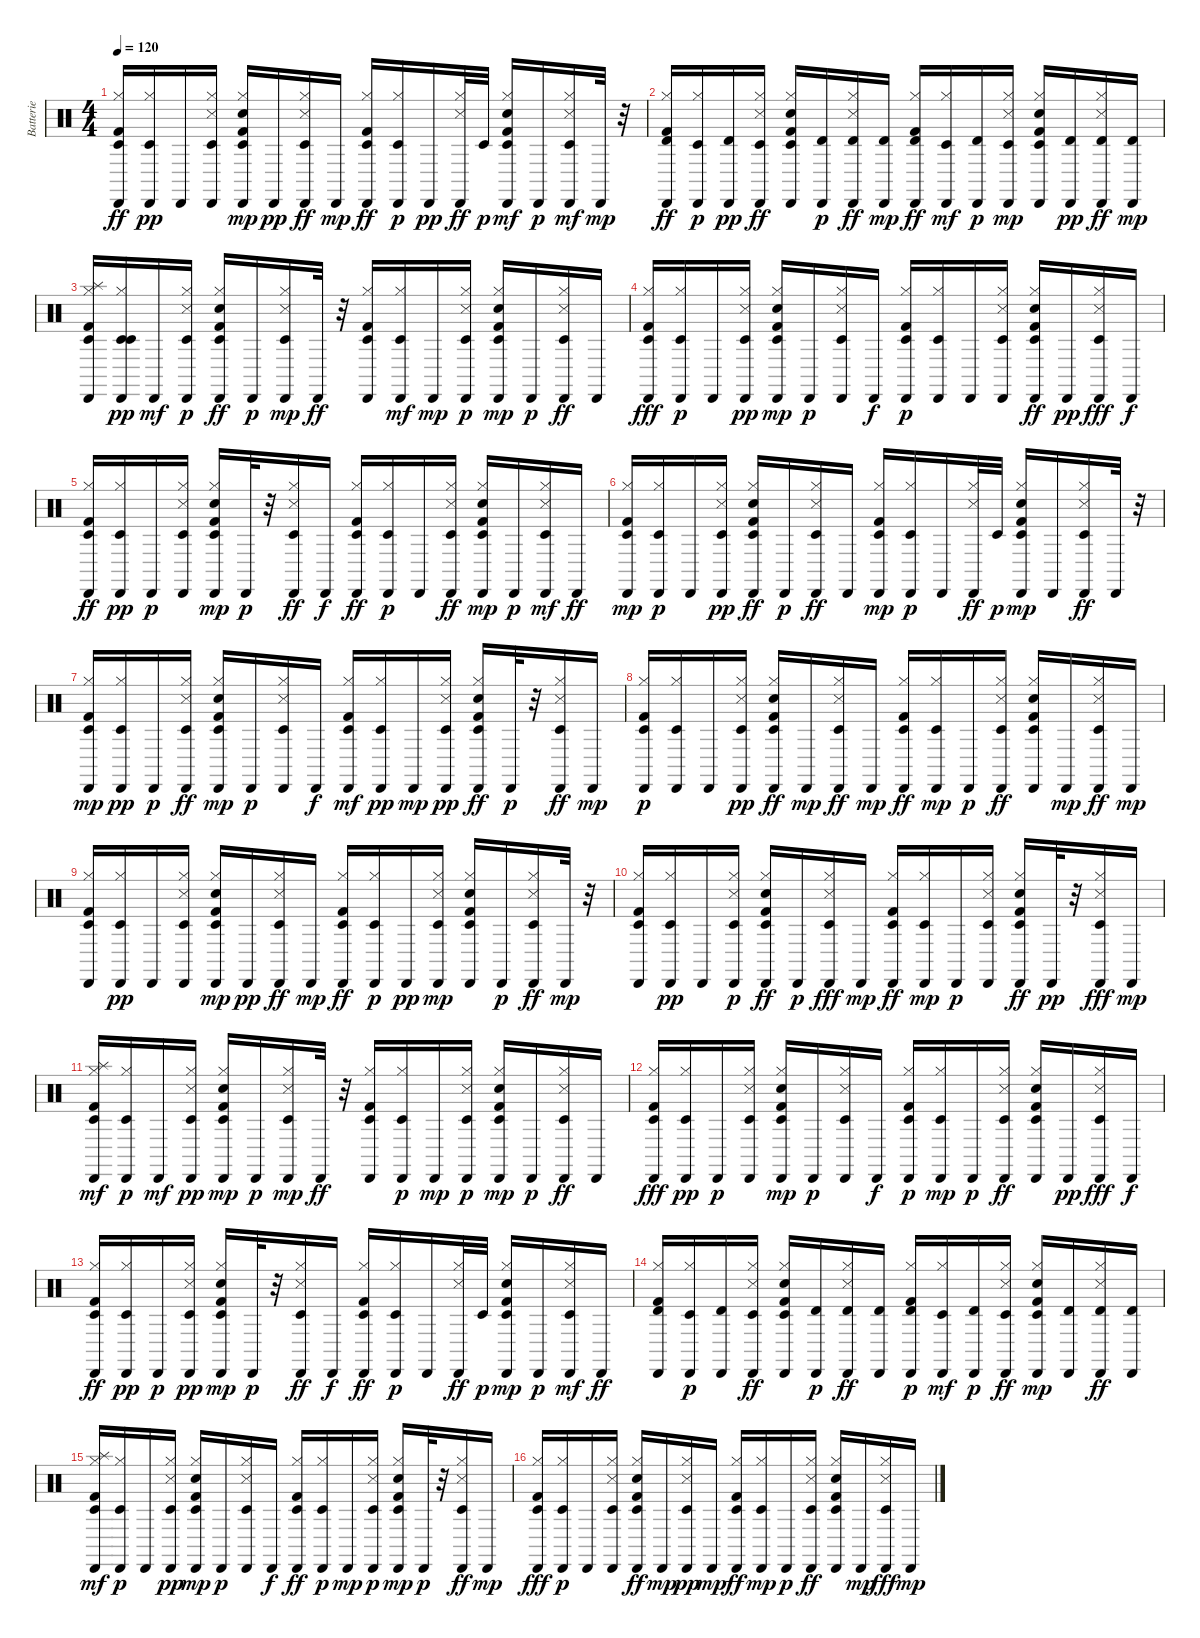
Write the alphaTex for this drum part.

\track ("Batterie" "Batterie") {instrument percussion}
\staff {score}
\articulation defaults
\ts (4 4)
\tempo 120
\clef neutral
\ks c
("Kick (hit) 2" "Cabasa (hit)" "Timbale low (hit)" "Hi-Hat (closed)").16{dy ff} ("Hi-Hat (closed)" "Timbale low (hit)" "Cabasa (hit)").16{dy pp} "Cabasa (hit)".16 ("Snare (side stick) 3" "Cabasa (hit)" "Hi-Hat (closed)" "Timbale low (hit)").16 ("Kick (hit) 2" "Hi-Hat (closed)" "Timbale low (hit)" "Cabasa (hit)" "Hand Clap (hit)").16{dy mp} "Cabasa (hit)".16{dy pp} ("Snare (side stick) 3" "Cabasa (hit)" "Timbale low (hit)" "Hi-Hat (closed)").16{dy ff} "Cabasa (hit)".16{dy mp} ("Cabasa (hit)" "Kick (hit) 2" "Timbale low (hit)" "Hi-Hat (closed)").16{dy ff} ("Hi-Hat (closed)" "Cabasa (hit)" "Timbale low (hit)").16{dy p} "Cabasa (hit)".16{dy pp} ("Cabasa (hit)" "Snare (side stick) 3" "Hi-Hat (closed)").32{dy ff} "Timbale low (hit)".32{dy p} ("Hi-Hat (closed)" "Cabasa (hit)" "Kick (hit) 2" "Hand Clap (hit)" "Timbale low (hit)").16{dy mf} "Cabasa (hit)".16{dy p} ("Cabasa (hit)" "Snare (side stick) 3" "Hi-Hat (closed)" "Timbale low (hit)").16{dy mf} "Cabasa (hit)".32{dy mp} r.32 |
("Timbale high (hit)" "Cabasa (hit)" "Kick (hit) 2" "Hi-Hat (closed)").16{dy ff} ("Hi-Hat (closed)" "Timbale low (hit)" "Cabasa (hit)").16{dy p} ("Timbale high (hit)" "Cabasa (hit)").16{dy pp} ("Timbale low (hit)" "Cabasa (hit)" "Snare (side stick) 3" "Hi-Hat (closed)").16{dy ff} ("Hi-Hat (closed)" "Timbale low (hit)" "Cabasa (hit)" "Kick (hit) 2" "Hand Clap (hit)").16 ("Timbale high (hit)" "Cabasa (hit)").16{dy p} ("Timbale high (hit)" "Cabasa (hit)" "Snare (side stick) 3" "Hi-Hat (closed)").16{dy ff} ("Timbale high (hit)" "Cabasa (hit)").16{dy mp} ("Timbale high (hit)" "Cabasa (hit)" "Kick (hit) 2" "Hi-Hat (closed)").16{dy ff} ("Timbale low (hit)" "Cabasa (hit)" "Hi-Hat (closed)").16{dy mf} ("Timbale high (hit)" "Cabasa (hit)").16{dy p} ("Timbale low (hit)" "Cabasa (hit)" "Snare (side stick) 3" "Hi-Hat (closed)").16{dy mp} ("Timbale low (hit)" "Cabasa (hit)" "Kick (hit) 2" "Hi-Hat (closed)" "Hand Clap (hit)").16 ("Timbale high (hit)" "Cabasa (hit)").16{dy pp} ("Timbale high (hit)" "Cabasa (hit)" "Hi-Hat (closed)" "Snare (side stick) 3").16{dy ff} ("Timbale high (hit)" "Cabasa (hit)").16{dy mp} |
("Hi-Hat (closed)" "Splash (hit)" "Kick (hit) 2" "Cabasa (hit)" "Timbale low (hit)").16 ("Hi-Hat (closed)" "Cabasa (hit)" "Timbale low (hit)" "Timbale low (hit)").16{dy pp} "Cabasa (hit)".16{dy mf} ("Cabasa (hit)" "Snare (side stick) 3" "Hi-Hat (closed)" "Timbale low (hit)").16{dy p} ("Timbale low (hit)" "Hand Clap (hit)" "Hi-Hat (closed)" "Cabasa (hit)" "Kick (hit) 2").16{dy ff} "Cabasa (hit)".16{dy p} ("Timbale low (hit)" "Cabasa (hit)" "Snare (side stick) 3" "Hi-Hat (closed)").16{dy mp} "Cabasa (hit)".32{dy ff} r.32 ("Timbale low (hit)" "Cabasa (hit)" "Kick (hit) 2" "Hi-Hat (closed)").16 ("Timbale low (hit)" "Cabasa (hit)" "Hi-Hat (closed)").16{dy mf} "Cabasa (hit)".16{dy mp} ("Snare (side stick) 3" "Cabasa (hit)" "Timbale low (hit)" "Hi-Hat (closed)").16{dy p} ("Timbale low (hit)" "Cabasa (hit)" "Hand Clap (hit)" "Kick (hit) 2" "Hi-Hat (closed)").16{dy mp} "Cabasa (hit)".16{dy p} ("Cabasa (hit)" "Snare (side stick) 3" "Timbale low (hit)" "Hi-Hat (closed)").16{dy ff} "Cabasa (hit)".16 |
("Cabasa (hit)" "Kick (hit) 2" "Timbale low (hit)" "Hi-Hat (closed)").16{dy fff} ("Hi-Hat (closed)" "Cabasa (hit)" "Timbale low (hit)").16{dy p} "Cabasa (hit)".16 ("Cabasa (hit)" "Snare (side stick) 3" "Hi-Hat (closed)" "Timbale low (hit)").16{dy pp} ("Kick (hit) 2" "Hi-Hat (closed)" "Cabasa (hit)" "Hand Clap (hit)" "Timbale low (hit)").16{dy mp} "Cabasa (hit)".16{dy p} ("Hi-Hat (closed)" "Cabasa (hit)" "Snare (side stick) 3" "Timbale low (hit)").16 "Cabasa (hit)".16{dy f} ("Kick (hit) 2" "Timbale low (hit)" "Hi-Hat (closed)" "Cabasa (hit)").16{dy p} ("Hi-Hat (closed)" "Cabasa (hit)" "Timbale low (hit)").16 "Cabasa (hit)".16 ("Cabasa (hit)" "Hi-Hat (closed)" "Snare (side stick) 3" "Timbale low (hit)").16 ("Timbale low (hit)" "Hi-Hat (closed)" "Cabasa (hit)" "Kick (hit) 2" "Hand Clap (hit)").16{dy ff} "Cabasa (hit)".16{dy pp} ("Timbale low (hit)" "Cabasa (hit)" "Hi-Hat (closed)" "Snare (side stick) 3").16{dy fff} "Cabasa (hit)".16{dy f} |
("Kick (hit) 2" "Timbale low (hit)" "Cabasa (hit)" "Hi-Hat (closed)").16{dy ff} ("Hi-Hat (closed)" "Timbale low (hit)" "Cabasa (hit)").16{dy pp} "Cabasa (hit)".16{dy p} ("Cabasa (hit)" "Snare (side stick) 3" "Timbale low (hit)" "Hi-Hat (closed)").16 ("Timbale low (hit)" "Kick (hit) 2" "Hi-Hat (closed)" "Cabasa (hit)" "Hand Clap (hit)").16{dy mp} "Cabasa (hit)".32{dy p} r.32 ("Cabasa (hit)" "Timbale low (hit)" "Snare (side stick) 3" "Hi-Hat (closed)").16{dy ff} "Cabasa (hit)".16{dy f} ("Timbale low (hit)" "Kick (hit) 2" "Cabasa (hit)" "Hi-Hat (closed)").16{dy ff} ("Timbale low (hit)" "Hi-Hat (closed)" "Cabasa (hit)").16{dy p} "Cabasa (hit)".16 ("Timbale low (hit)" "Cabasa (hit)" "Snare (side stick) 3" "Hi-Hat (closed)").16{dy ff} ("Timbale low (hit)" "Hi-Hat (closed)" "Kick (hit) 2" "Hand Clap (hit)" "Cabasa (hit)").16{dy mp} "Cabasa (hit)".16{dy p} ("Cabasa (hit)" "Timbale low (hit)" "Snare (side stick) 3" "Hi-Hat (closed)").16{dy mf} "Cabasa (hit)".16{dy ff} |
("Cabasa (hit)" "Kick (hit) 2" "Timbale low (hit)" "Hi-Hat (closed)").16{dy mp} ("Hi-Hat (closed)" "Timbale low (hit)" "Cabasa (hit)").16{dy p} "Cabasa (hit)".16 ("Cabasa (hit)" "Snare (side stick) 3" "Hi-Hat (closed)" "Timbale low (hit)").16{dy pp} ("Hi-Hat (closed)" "Timbale low (hit)" "Cabasa (hit)" "Kick (hit) 2" "Hand Clap (hit)").16{dy ff} "Cabasa (hit)".16{dy p} ("Cabasa (hit)" "Timbale low (hit)" "Snare (side stick) 3" "Hi-Hat (closed)").16{dy ff} "Cabasa (hit)".16 ("Kick (hit) 2" "Cabasa (hit)" "Timbale low (hit)" "Hi-Hat (closed)").16{dy mp} ("Cabasa (hit)" "Hi-Hat (closed)" "Timbale low (hit)").16{dy p} "Cabasa (hit)".16 ("Cabasa (hit)" "Snare (side stick) 3" "Hi-Hat (closed)").32{dy ff} "Timbale low (hit)".32{dy p} ("Cabasa (hit)" "Kick (hit) 2" "Timbale low (hit)" "Hi-Hat (closed)" "Hand Clap (hit)").16{dy mp} "Cabasa (hit)".16 ("Cabasa (hit)" "Hi-Hat (closed)" "Snare (side stick) 3" "Timbale low (hit)").16{dy ff} "Cabasa (hit)".32 r.32 |
("Kick (hit) 2" "Cabasa (hit)" "Hi-Hat (closed)" "Timbale low (hit)").16{dy mp} ("Hi-Hat (closed)" "Cabasa (hit)" "Timbale low (hit)").16{dy pp} "Cabasa (hit)".16{dy p} ("Cabasa (hit)" "Snare (side stick) 3" "Timbale low (hit)" "Hi-Hat (closed)").16{dy ff} ("Kick (hit) 2" "Timbale low (hit)" "Hi-Hat (closed)" "Cabasa (hit)" "Hand Clap (hit)").16{dy mp} "Cabasa (hit)".16{dy p} ("Snare (side stick) 3" "Cabasa (hit)" "Hi-Hat (closed)" "Timbale low (hit)").16 "Cabasa (hit)".16{dy f} ("Kick (hit) 2" "Timbale low (hit)" "Cabasa (hit)" "Hi-Hat (closed)").16{dy mf} ("Hi-Hat (closed)" "Timbale low (hit)" "Cabasa (hit)").16{dy pp} "Cabasa (hit)".16{dy mp} ("Cabasa (hit)" "Snare (side stick) 3" "Hi-Hat (closed)" "Timbale low (hit)").16{dy pp} ("Timbale low (hit)" "Hi-Hat (closed)" "Kick (hit) 2" "Cabasa (hit)" "Hand Clap (hit)").16{dy ff} "Cabasa (hit)".32{dy p} r.32 ("Hi-Hat (closed)" "Cabasa (hit)" "Timbale low (hit)" "Snare (side stick) 3").16{dy ff} "Cabasa (hit)".16{dy mp} |
("Kick (hit) 2" "Cabasa (hit)" "Hi-Hat (closed)" "Timbale low (hit)").16{dy p} ("Hi-Hat (closed)" "Timbale low (hit)" "Cabasa (hit)").16 "Cabasa (hit)".16 ("Cabasa (hit)" "Snare (side stick) 3" "Hi-Hat (closed)" "Timbale low (hit)").16{dy pp} ("Timbale low (hit)" "Hi-Hat (closed)" "Cabasa (hit)" "Kick (hit) 2" "Hand Clap (hit)").16{dy ff} "Cabasa (hit)".16{dy mp} ("Timbale low (hit)" "Cabasa (hit)" "Snare (side stick) 3" "Hi-Hat (closed)").16{dy ff} "Cabasa (hit)".16{dy mp} ("Timbale low (hit)" "Cabasa (hit)" "Kick (hit) 2" "Hi-Hat (closed)").16{dy ff} ("Timbale low (hit)" "Hi-Hat (closed)" "Cabasa (hit)").16{dy mp} "Cabasa (hit)".16{dy p} ("Cabasa (hit)" "Snare (side stick) 3" "Timbale low (hit)" "Hi-Hat (closed)").16{dy ff} ("Timbale low (hit)" "Hi-Hat (closed)" "Kick (hit) 2" "Cabasa (hit)" "Hand Clap (hit)").16 "Cabasa (hit)".16{dy mp} ("Cabasa (hit)" "Timbale low (hit)" "Hi-Hat (closed)" "Snare (side stick) 3").16{dy ff} "Cabasa (hit)".16{dy mp} |
("Kick (hit) 2" "Cabasa (hit)" "Hi-Hat (closed)" "Timbale low (hit)").16 ("Hi-Hat (closed)" "Timbale low (hit)" "Cabasa (hit)").16{dy pp} "Cabasa (hit)".16 ("Snare (side stick) 3" "Cabasa (hit)" "Hi-Hat (closed)" "Timbale low (hit)").16 ("Timbale low (hit)" "Kick (hit) 2" "Hi-Hat (closed)" "Cabasa (hit)" "Hand Clap (hit)").16{dy mp} "Cabasa (hit)".16{dy pp} ("Cabasa (hit)" "Timbale low (hit)" "Snare (side stick) 3" "Hi-Hat (closed)").16{dy ff} "Cabasa (hit)".16{dy mp} ("Timbale low (hit)" "Kick (hit) 2" "Cabasa (hit)" "Hi-Hat (closed)").16{dy ff} ("Hi-Hat (closed)" "Timbale low (hit)" "Cabasa (hit)").16{dy p} "Cabasa (hit)".16{dy pp} ("Snare (side stick) 3" "Timbale low (hit)" "Cabasa (hit)" "Hi-Hat (closed)").16{dy mp} ("Timbale low (hit)" "Kick (hit) 2" "Hand Clap (hit)" "Cabasa (hit)" "Hi-Hat (closed)").16 "Cabasa (hit)".16{dy p} ("Cabasa (hit)" "Hi-Hat (closed)" "Snare (side stick) 3" "Timbale low (hit)").16{dy ff} "Cabasa (hit)".32{dy mp} r.32 |
("Kick (hit) 2" "Cabasa (hit)" "Hi-Hat (closed)" "Timbale low (hit)").16 ("Hi-Hat (closed)" "Cabasa (hit)" "Timbale low (hit)").16{dy pp} "Cabasa (hit)".16 ("Cabasa (hit)" "Snare (side stick) 3" "Hi-Hat (closed)" "Timbale low (hit)").16{dy p} ("Timbale low (hit)" "Hi-Hat (closed)" "Kick (hit) 2" "Cabasa (hit)" "Hand Clap (hit)").16{dy ff} "Cabasa (hit)".16{dy p} ("Timbale low (hit)" "Cabasa (hit)" "Hi-Hat (closed)" "Snare (side stick) 3").16{dy fff} "Cabasa (hit)".16{dy mp} ("Timbale low (hit)" "Kick (hit) 2" "Cabasa (hit)" "Hi-Hat (closed)").16{dy ff} ("Hi-Hat (closed)" "Timbale low (hit)" "Cabasa (hit)").16{dy mp} "Cabasa (hit)".16{dy p} ("Hi-Hat (closed)" "Cabasa (hit)" "Snare (side stick) 3" "Timbale low (hit)").16 ("Hi-Hat (closed)" "Timbale low (hit)" "Kick (hit) 2" "Cabasa (hit)" "Hand Clap (hit)").16{dy ff} "Cabasa (hit)".32{dy pp} r.32 ("Cabasa (hit)" "Hi-Hat (closed)" "Timbale low (hit)" "Snare (side stick) 3").16{dy fff} "Cabasa (hit)".16{dy mp} |
("Hi-Hat (closed)" "Splash (hit)" "Kick (hit) 2" "Cabasa (hit)" "Timbale low (hit)").16{dy mf} ("Hi-Hat (closed)" "Cabasa (hit)" "Timbale low (hit)").16{dy p} "Cabasa (hit)".16{dy mf} ("Cabasa (hit)" "Snare (side stick) 3" "Hi-Hat (closed)" "Timbale low (hit)").16{dy pp} ("Hand Clap (hit)" "Hi-Hat (closed)" "Cabasa (hit)" "Kick (hit) 2" "Timbale low (hit)").16{dy mp} "Cabasa (hit)".16{dy p} ("Cabasa (hit)" "Snare (side stick) 3" "Hi-Hat (closed)" "Timbale low (hit)").16{dy mp} "Cabasa (hit)".32{dy ff} r.32 ("Cabasa (hit)" "Kick (hit) 2" "Timbale low (hit)" "Hi-Hat (closed)").16 ("Cabasa (hit)" "Hi-Hat (closed)" "Timbale low (hit)").16{dy p} "Cabasa (hit)".16{dy mp} ("Snare (side stick) 3" "Cabasa (hit)" "Timbale low (hit)" "Hi-Hat (closed)").16{dy p} ("Timbale low (hit)" "Cabasa (hit)" "Hand Clap (hit)" "Kick (hit) 2" "Hi-Hat (closed)").16{dy mp} "Cabasa (hit)".16{dy p} ("Timbale low (hit)" "Cabasa (hit)" "Snare (side stick) 3" "Hi-Hat (closed)").16{dy ff} "Cabasa (hit)".16 |
("Timbale low (hit)" "Cabasa (hit)" "Kick (hit) 2" "Hi-Hat (closed)").16{dy fff} ("Hi-Hat (closed)" "Timbale low (hit)" "Cabasa (hit)").16{dy pp} "Cabasa (hit)".16{dy p} ("Cabasa (hit)" "Snare (side stick) 3" "Timbale low (hit)" "Hi-Hat (closed)").16 ("Timbale low (hit)" "Kick (hit) 2" "Hi-Hat (closed)" "Cabasa (hit)" "Hand Clap (hit)").16{dy mp} "Cabasa (hit)".16{dy p} ("Timbale low (hit)" "Hi-Hat (closed)" "Cabasa (hit)" "Snare (side stick) 3").16 "Cabasa (hit)".16{dy f} ("Timbale low (hit)" "Kick (hit) 2" "Hi-Hat (closed)" "Cabasa (hit)").16{dy p} ("Timbale low (hit)" "Hi-Hat (closed)" "Cabasa (hit)").16{dy mp} "Cabasa (hit)".16{dy p} ("Cabasa (hit)" "Timbale low (hit)" "Hi-Hat (closed)" "Snare (side stick) 3").16{dy ff} ("Timbale low (hit)" "Hi-Hat (closed)" "Cabasa (hit)" "Kick (hit) 2" "Hand Clap (hit)").16 "Cabasa (hit)".16{dy pp} ("Cabasa (hit)" "Timbale low (hit)" "Hi-Hat (closed)" "Snare (side stick) 3").16{dy fff} "Cabasa (hit)".16{dy f} |
("Kick (hit) 2" "Cabasa (hit)" "Timbale low (hit)" "Hi-Hat (closed)").16{dy ff} ("Hi-Hat (closed)" "Timbale low (hit)" "Cabasa (hit)").16{dy pp} "Cabasa (hit)".16{dy p} ("Cabasa (hit)" "Snare (side stick) 3" "Hi-Hat (closed)" "Timbale low (hit)").16{dy pp} ("Kick (hit) 2" "Hi-Hat (closed)" "Timbale low (hit)" "Cabasa (hit)" "Hand Clap (hit)").16{dy mp} "Cabasa (hit)".32{dy p} r.32 ("Cabasa (hit)" "Snare (side stick) 3" "Timbale low (hit)" "Hi-Hat (closed)").16{dy ff} "Cabasa (hit)".16{dy f} ("Kick (hit) 2" "Cabasa (hit)" "Timbale low (hit)" "Hi-Hat (closed)").16{dy ff} ("Hi-Hat (closed)" "Cabasa (hit)" "Timbale low (hit)").16{dy p} "Cabasa (hit)".16 ("Cabasa (hit)" "Snare (side stick) 3" "Hi-Hat (closed)").32{dy ff} "Timbale low (hit)".32{dy p} ("Hi-Hat (closed)" "Kick (hit) 2" "Hand Clap (hit)" "Timbale low (hit)" "Cabasa (hit)").16{dy mp} "Cabasa (hit)".16{dy p} ("Cabasa (hit)" "Snare (side stick) 3" "Hi-Hat (closed)" "Timbale low (hit)").16{dy mf} "Cabasa (hit)".16{dy ff} |
("Timbale high (hit)" "Cabasa (hit)" "Kick (hit) 2" "Hi-Hat (closed)").16 ("Hi-Hat (closed)" "Timbale low (hit)" "Cabasa (hit)").16{dy p} ("Timbale high (hit)" "Cabasa (hit)").16 ("Timbale low (hit)" "Cabasa (hit)" "Snare (side stick) 3" "Hi-Hat (closed)").16{dy ff} ("Hi-Hat (closed)" "Timbale low (hit)" "Cabasa (hit)" "Kick (hit) 2" "Hand Clap (hit)").16 ("Timbale high (hit)" "Cabasa (hit)").16{dy p} ("Timbale high (hit)" "Cabasa (hit)" "Snare (side stick) 3" "Hi-Hat (closed)").16{dy ff} ("Timbale high (hit)" "Cabasa (hit)").16 ("Timbale high (hit)" "Kick (hit) 2" "Cabasa (hit)" "Hi-Hat (closed)").16{dy p} ("Timbale low (hit)" "Cabasa (hit)" "Hi-Hat (closed)").16{dy mf} ("Timbale high (hit)" "Cabasa (hit)").16{dy p} ("Timbale low (hit)" "Cabasa (hit)" "Snare (side stick) 3" "Hi-Hat (closed)").16{dy ff} ("Timbale low (hit)" "Cabasa (hit)" "Kick (hit) 2" "Hi-Hat (closed)" "Hand Clap (hit)").16{dy mp} ("Timbale high (hit)" "Cabasa (hit)").16 ("Timbale high (hit)" "Cabasa (hit)" "Hi-Hat (closed)" "Snare (side stick) 3").16{dy ff} ("Timbale high (hit)" "Cabasa (hit)").16 |
("Hi-Hat (closed)" "Splash (hit)" "Kick (hit) 2" "Cabasa (hit)" "Timbale low (hit)").16{dy mf} ("Hi-Hat (closed)" "Cabasa (hit)" "Timbale low (hit)").16{dy p} "Cabasa (hit)".16 ("Snare (side stick) 3" "Cabasa (hit)" "Hi-Hat (closed)" "Timbale low (hit)").16{dy pp} ("Hand Clap (hit)" "Hi-Hat (closed)" "Kick (hit) 2" "Cabasa (hit)" "Timbale low (hit)").16{dy mp} "Cabasa (hit)".16{dy p} ("Snare (side stick) 3" "Cabasa (hit)" "Hi-Hat (closed)" "Timbale low (hit)").16 "Cabasa (hit)".16{dy f} ("Kick (hit) 2" "Timbale low (hit)" "Cabasa (hit)" "Hi-Hat (closed)").16{dy ff} ("Hi-Hat (closed)" "Cabasa (hit)" "Timbale low (hit)").16{dy p} "Cabasa (hit)".16{dy mp} ("Snare (side stick) 3" "Cabasa (hit)" "Timbale low (hit)" "Hi-Hat (closed)").16{dy p} ("Timbale low (hit)" "Hand Clap (hit)" "Kick (hit) 2" "Cabasa (hit)" "Hi-Hat (closed)").16{dy mp} "Cabasa (hit)".32{dy p} r.32 ("Timbale low (hit)" "Snare (side stick) 3" "Cabasa (hit)" "Hi-Hat (closed)").16{dy ff} "Cabasa (hit)".16{dy mp} |
("Timbale low (hit)" "Cabasa (hit)" "Kick (hit) 2" "Hi-Hat (closed)").16{dy fff} ("Hi-Hat (closed)" "Timbale low (hit)" "Cabasa (hit)").16{dy p} "Cabasa (hit)".16 ("Cabasa (hit)" "Snare (side stick) 3" "Timbale low (hit)" "Hi-Hat (closed)").16 ("Timbale low (hit)" "Kick (hit) 2" "Hi-Hat (closed)" "Cabasa (hit)" "Hand Clap (hit)").16{dy ff} "Cabasa (hit)".16{dy mp} ("Timbale low (hit)" "Cabasa (hit)" "Hi-Hat (closed)" "Snare (side stick) 3").16{dy pp} "Cabasa (hit)".16{dy mp} ("Timbale low (hit)" "Kick (hit) 2" "Hi-Hat (closed)" "Cabasa (hit)").16{dy ff} ("Timbale low (hit)" "Hi-Hat (closed)" "Cabasa (hit)").16{dy mp} "Cabasa (hit)".16{dy p} ("Timbale low (hit)" "Cabasa (hit)" "Hi-Hat (closed)" "Snare (side stick) 3").16{dy ff} ("Timbale low (hit)" "Hi-Hat (closed)" "Cabasa (hit)" "Kick (hit) 2" "Hand Clap (hit)").16 "Cabasa (hit)".16{dy mp} ("Cabasa (hit)" "Timbale low (hit)" "Hi-Hat (closed)" "Snare (side stick) 3").16{dy fff} "Cabasa (hit)".16{dy mp}
